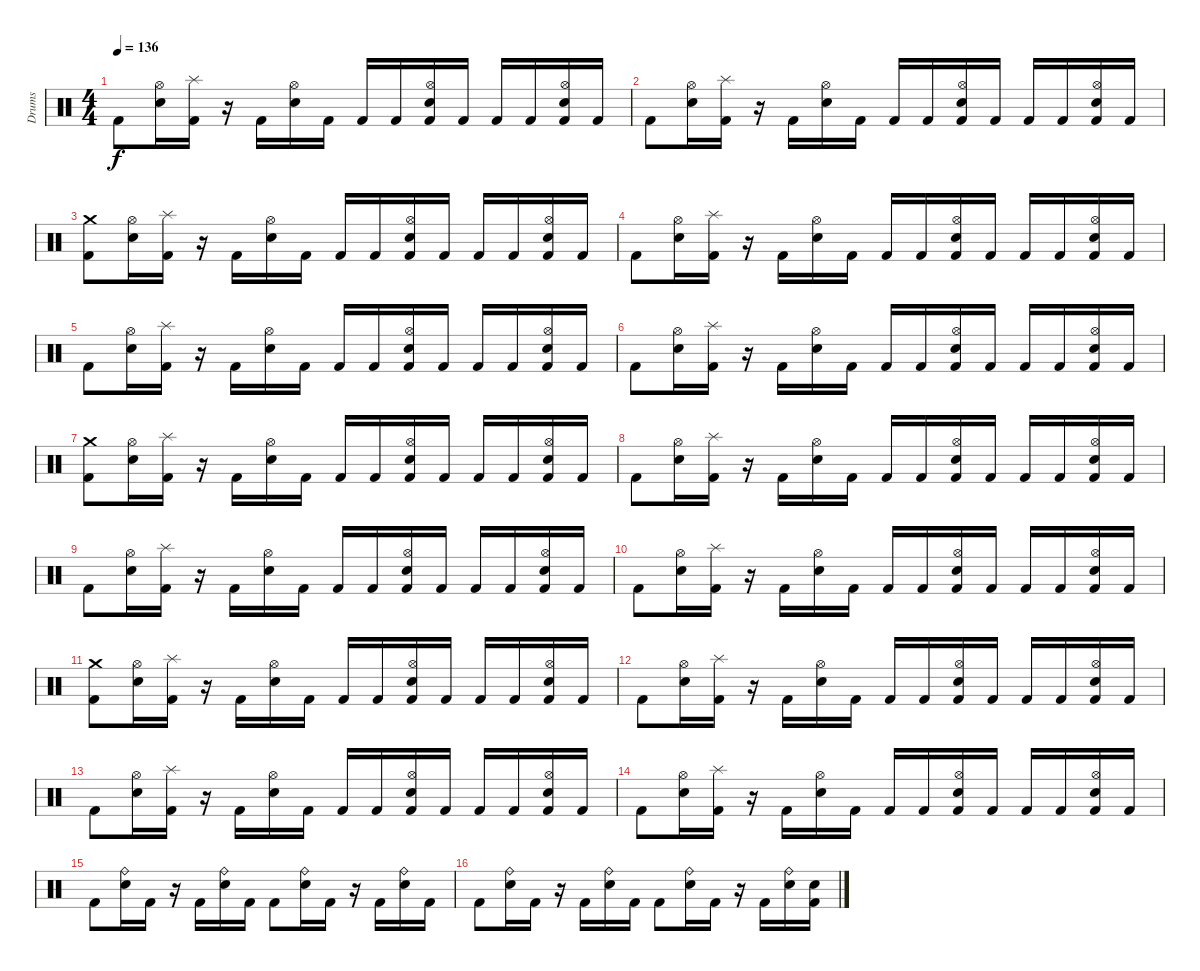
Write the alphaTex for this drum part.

\track ("Drums" "Drums") {instrument percussion}
\staff {score}
\articulation defaults
\ts (4 4)
\tempo 136
\clef neutral
\ks c "Kick (hit) 2".8{dy f}
("Hi-Hat (open)" "Electric Snare (hit)").16 ("Splash (hit)" "Kick (hit) 2").16 r.16 "Kick (hit) 2".16 ("Hi-Hat (open)" "Electric Snare (hit)").16 "Kick (hit) 2".16 "Kick (hit) 2".16 "Kick (hit) 2".16 ("Hi-Hat (open)" "Electric Snare (hit)" "Kick (hit) 2").16 "Kick (hit) 2".16 "Kick (hit) 2".16 "Kick (hit) 2".16 ("Hi-Hat (open)" "Electric Snare (hit)" "Kick (hit) 2").16 "Kick (hit) 2".16 |
"Kick (hit) 2".8 ("Hi-Hat (open)" "Electric Snare (hit)").16 ("Splash (hit)" "Kick (hit) 2").16 r.16 "Kick (hit) 2".16 ("Hi-Hat (open)" "Electric Snare (hit)").16 "Kick (hit) 2".16 "Kick (hit) 2".16 "Kick (hit) 2".16 ("Hi-Hat (open)" "Electric Snare (hit)" "Kick (hit) 2").16 "Kick (hit) 2".16 "Kick (hit) 2".16 "Kick (hit) 2".16 ("Hi-Hat (open)" "Electric Snare (hit)" "Kick (hit) 2").16 "Kick (hit) 2".16 |
("Crash medium (hit)" "Kick (hit) 2").8 ("Hi-Hat (open)" "Electric Snare (hit)").16 ("Splash (hit)" "Kick (hit) 2").16 r.16 "Kick (hit) 2".16 ("Hi-Hat (open)" "Electric Snare (hit)").16 "Kick (hit) 2".16 "Kick (hit) 2".16 "Kick (hit) 2".16 ("Hi-Hat (open)" "Electric Snare (hit)" "Kick (hit) 2").16 "Kick (hit) 2".16 "Kick (hit) 2".16 "Kick (hit) 2".16 ("Hi-Hat (open)" "Electric Snare (hit)" "Kick (hit) 2").16 "Kick (hit) 2".16 |
"Kick (hit) 2".8 ("Hi-Hat (open)" "Electric Snare (hit)").16 ("Splash (hit)" "Kick (hit) 2").16 r.16 "Kick (hit) 2".16 ("Hi-Hat (open)" "Electric Snare (hit)").16 "Kick (hit) 2".16 "Kick (hit) 2".16 "Kick (hit) 2".16 ("Hi-Hat (open)" "Electric Snare (hit)" "Kick (hit) 2").16 "Kick (hit) 2".16 "Kick (hit) 2".16 "Kick (hit) 2".16 ("Hi-Hat (open)" "Electric Snare (hit)" "Kick (hit) 2").16 "Kick (hit) 2".16 |
"Kick (hit) 2".8 ("Hi-Hat (open)" "Electric Snare (hit)").16 ("Splash (hit)" "Kick (hit) 2").16 r.16 "Kick (hit) 2".16 ("Hi-Hat (open)" "Electric Snare (hit)").16 "Kick (hit) 2".16 "Kick (hit) 2".16 "Kick (hit) 2".16 ("Hi-Hat (open)" "Electric Snare (hit)" "Kick (hit) 2").16 "Kick (hit) 2".16 "Kick (hit) 2".16 "Kick (hit) 2".16 ("Hi-Hat (open)" "Electric Snare (hit)" "Kick (hit) 2").16 "Kick (hit) 2".16 |
"Kick (hit) 2".8 ("Hi-Hat (open)" "Electric Snare (hit)").16 ("Splash (hit)" "Kick (hit) 2").16 r.16 "Kick (hit) 2".16 ("Hi-Hat (open)" "Electric Snare (hit)").16 "Kick (hit) 2".16 "Kick (hit) 2".16 "Kick (hit) 2".16 ("Hi-Hat (open)" "Electric Snare (hit)" "Kick (hit) 2").16 "Kick (hit) 2".16 "Kick (hit) 2".16 "Kick (hit) 2".16 ("Hi-Hat (open)" "Electric Snare (hit)" "Kick (hit) 2").16 "Kick (hit) 2".16 |
("Crash medium (hit)" "Kick (hit) 2").8 ("Hi-Hat (open)" "Electric Snare (hit)").16 ("Splash (hit)" "Kick (hit) 2").16 r.16 "Kick (hit) 2".16 ("Hi-Hat (open)" "Electric Snare (hit)").16 "Kick (hit) 2".16 "Kick (hit) 2".16 "Kick (hit) 2".16 ("Hi-Hat (open)" "Electric Snare (hit)" "Kick (hit) 2").16 "Kick (hit) 2".16 "Kick (hit) 2".16 "Kick (hit) 2".16 ("Hi-Hat (open)" "Electric Snare (hit)" "Kick (hit) 2").16 "Kick (hit) 2".16 |
"Kick (hit) 2".8 ("Hi-Hat (open)" "Electric Snare (hit)").16 ("Splash (hit)" "Kick (hit) 2").16 r.16 "Kick (hit) 2".16 ("Hi-Hat (open)" "Electric Snare (hit)").16 "Kick (hit) 2".16 "Kick (hit) 2".16 "Kick (hit) 2".16 ("Hi-Hat (open)" "Electric Snare (hit)" "Kick (hit) 2").16 "Kick (hit) 2".16 "Kick (hit) 2".16 "Kick (hit) 2".16 ("Hi-Hat (open)" "Electric Snare (hit)" "Kick (hit) 2").16 "Kick (hit) 2".16 |
"Kick (hit) 2".8 ("Hi-Hat (open)" "Electric Snare (hit)").16 ("Splash (hit)" "Kick (hit) 2").16 r.16 "Kick (hit) 2".16 ("Hi-Hat (open)" "Electric Snare (hit)").16 "Kick (hit) 2".16 "Kick (hit) 2".16 "Kick (hit) 2".16 ("Hi-Hat (open)" "Electric Snare (hit)" "Kick (hit) 2").16 "Kick (hit) 2".16 "Kick (hit) 2".16 "Kick (hit) 2".16 ("Hi-Hat (open)" "Electric Snare (hit)" "Kick (hit) 2").16 "Kick (hit) 2".16 |
"Kick (hit) 2".8 ("Hi-Hat (open)" "Electric Snare (hit)").16 ("Splash (hit)" "Kick (hit) 2").16 r.16 "Kick (hit) 2".16 ("Hi-Hat (open)" "Electric Snare (hit)").16 "Kick (hit) 2".16 "Kick (hit) 2".16 "Kick (hit) 2".16 ("Hi-Hat (open)" "Electric Snare (hit)" "Kick (hit) 2").16 "Kick (hit) 2".16 "Kick (hit) 2".16 "Kick (hit) 2".16 ("Hi-Hat (open)" "Electric Snare (hit)" "Kick (hit) 2").16 "Kick (hit) 2".16 |
("Crash medium (hit)" "Kick (hit) 2").8 ("Hi-Hat (open)" "Electric Snare (hit)").16 ("Splash (hit)" "Kick (hit) 2").16 r.16 "Kick (hit) 2".16 ("Hi-Hat (open)" "Electric Snare (hit)").16 "Kick (hit) 2".16 "Kick (hit) 2".16 "Kick (hit) 2".16 ("Hi-Hat (open)" "Electric Snare (hit)" "Kick (hit) 2").16 "Kick (hit) 2".16 "Kick (hit) 2".16 "Kick (hit) 2".16 ("Hi-Hat (open)" "Electric Snare (hit)" "Kick (hit) 2").16 "Kick (hit) 2".16 |
"Kick (hit) 2".8 ("Hi-Hat (open)" "Electric Snare (hit)").16 ("Splash (hit)" "Kick (hit) 2").16 r.16 "Kick (hit) 2".16 ("Hi-Hat (open)" "Electric Snare (hit)").16 "Kick (hit) 2".16 "Kick (hit) 2".16 "Kick (hit) 2".16 ("Hi-Hat (open)" "Electric Snare (hit)" "Kick (hit) 2").16 "Kick (hit) 2".16 "Kick (hit) 2".16 "Kick (hit) 2".16 ("Hi-Hat (open)" "Electric Snare (hit)" "Kick (hit) 2").16 "Kick (hit) 2".16 |
"Kick (hit) 2".8 ("Hi-Hat (open)" "Electric Snare (hit)").16 ("Splash (hit)" "Kick (hit) 2").16 r.16 "Kick (hit) 2".16 ("Hi-Hat (open)" "Electric Snare (hit)").16 "Kick (hit) 2".16 "Kick (hit) 2".16 "Kick (hit) 2".16 ("Hi-Hat (open)" "Electric Snare (hit)" "Kick (hit) 2").16 "Kick (hit) 2".16 "Kick (hit) 2".16 "Kick (hit) 2".16 ("Hi-Hat (open)" "Electric Snare (hit)" "Kick (hit) 2").16 "Kick (hit) 2".16 |
"Kick (hit) 2".8 ("Hi-Hat (open)" "Electric Snare (hit)").16 ("Splash (hit)" "Kick (hit) 2").16 r.16 "Kick (hit) 2".16 ("Hi-Hat (open)" "Electric Snare (hit)").16 "Kick (hit) 2".16 "Kick (hit) 2".16 "Kick (hit) 2".16 ("Hi-Hat (open)" "Electric Snare (hit)" "Kick (hit) 2").16 "Kick (hit) 2".16 "Kick (hit) 2".16 "Kick (hit) 2".16 ("Hi-Hat (open)" "Electric Snare (hit)" "Kick (hit) 2").16 "Kick (hit) 2".16 |
"Kick (hit) 2".8 ("Ride (bell)" "Electric Snare (hit)").16 "Kick (hit) 2".16 r.16 "Kick (hit) 2".16 ("Ride (bell)" "Electric Snare (hit)").16 "Kick (hit) 2".16 "Kick (hit) 2".8 ("Ride (bell)" "Electric Snare (hit)").16 "Kick (hit) 2".16 r.16 "Kick (hit) 2".16 ("Ride (bell)" "Electric Snare (hit)").16 "Kick (hit) 2".16 |
"Kick (hit) 2".8 ("Ride (bell)" "Electric Snare (hit)").16 "Kick (hit) 2".16 r.16 "Kick (hit) 2".16 ("Ride (bell)" "Electric Snare (hit)").16 "Kick (hit) 2".16 "Kick (hit) 2".8 ("Ride (bell)" "Electric Snare (hit)").16 "Kick (hit) 2".16 r.16 "Kick (hit) 2".16 ("Ride (bell)" "Electric Snare (hit)").16 ("Electric Snare (hit)" "Kick (hit) 2").16
